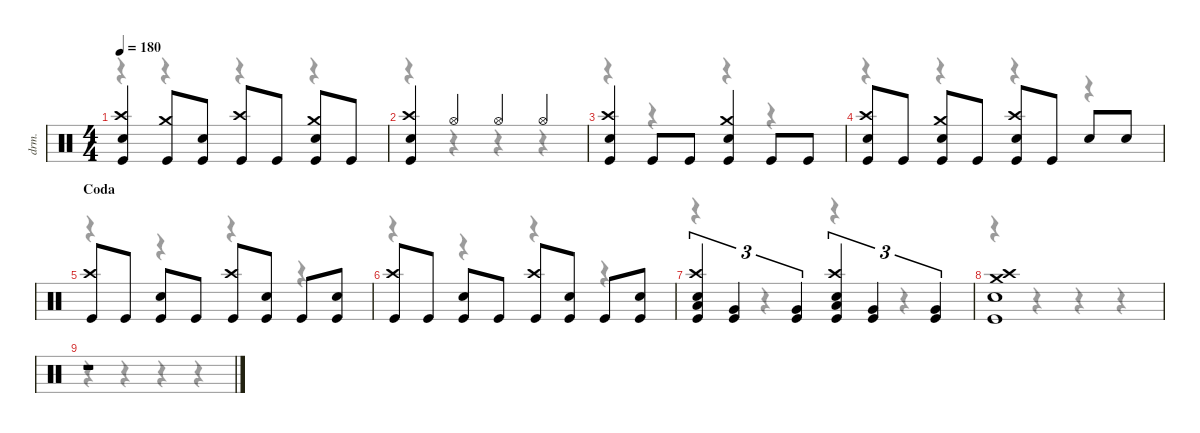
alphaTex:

\defaultSystemsLayout 4
\hideDynamics
\bracketExtendMode nobrackets
\track ("Drums" "drm.") {instrument percussion}
\staff {score}
\articulation defaults
\voice
\ts (4 4)
\tempo 180
\clef neutral
\ks c
("Crash high (hit)" "Snare (hit) 2" "Kick (hit)").4{dy f} ("Crash medium (hit)" "Kick (hit)").8 ("Snare (hit) 2" "Kick (hit)").8 ("Crash high (hit)" "Kick (hit)").8 "Kick (hit)".8 ("Crash medium (hit)" "Snare (hit) 2" "Kick (hit)").8 "Kick (hit)".8 |
("Crash high (hit)" "Snare (hit) 2" "Kick (hit)").4 "Hi-Hat (open)".4 "Hi-Hat (open)".4 "Hi-Hat (open)".4 |
("Crash high (hit)" "Snare (hit) 2" "Kick (hit)").4 "Kick (hit)".8 "Kick (hit)".8 ("Crash medium (hit)" "Snare (hit) 2" "Kick (hit)").4 "Kick (hit)".8 "Kick (hit)".8 |
("Crash high (hit)" "Snare (hit) 2" "Kick (hit)").8 "Kick (hit)".8 ("Crash medium (hit)" "Snare (hit) 2" "Kick (hit)").8 "Kick (hit)".8 ("Crash high (hit)" "Snare (hit) 2" "Kick (hit)").8 "Kick (hit)".8 "Snare (hit) 2".8 "Snare (hit) 2".8 |
\section ("" "Coda")
("Crash high (hit)" "Kick (hit)").8 "Kick (hit)".8 ("Snare (hit) 2" "Kick (hit)").8 "Kick (hit)".8 ("Crash high (hit)" "Kick (hit)").8 ("Snare (hit) 2" "Kick (hit)").8 "Kick (hit)".8 ("Snare (hit) 2" "Kick (hit)").8 |
("Crash high (hit)" "Kick (hit)").8 "Kick (hit)".8 ("Snare (hit) 2" "Kick (hit)").8 "Kick (hit)".8 ("Crash high (hit)" "Kick (hit)").8 ("Snare (hit) 2" "Kick (hit)").8 "Kick (hit)".8 ("Snare (hit) 2" "Kick (hit)").8 |
("Crash high (hit)" "Low Tom (hit)" "Snare (hit) 2" "Kick (hit)").4{tu (3 2)} ("Very Low Tom (hit)" "Kick (hit)").4{tu (3 2)} ("Very Low Tom (hit)" "Kick (hit)").4{tu (3 2)} ("Crash high (hit)" "Low Tom (hit)" "Snare (hit) 2" "Kick (hit)").4{tu (3 2)} ("Very Low Tom (hit)" "Kick (hit)").4{tu (3 2)} ("Very Low Tom (hit)" "Kick (hit)").4{tu (3 2)} |
("Crash high (hit)" "Crash medium (hit)" "Snare (hit) 2" "Kick (hit)").1 |
r.1
\voice
\clef neutral
\ottava regular
\simile none
\ks c
r.4{dy mf} r.4 r.4 r.4 |
r.4 r.4 r.4 r.4 |
r.4 r.4 r.4 r.4 |
r.4 r.4 r.4 r.4 |
r.4 r.4 r.4 r.4 |
r.4 r.4 r.4 r.4 |
r.4 r.4 r.4 r.4 |
r.4 r.4 r.4 r.4 |
r.4 r.4 r.4 r.4
